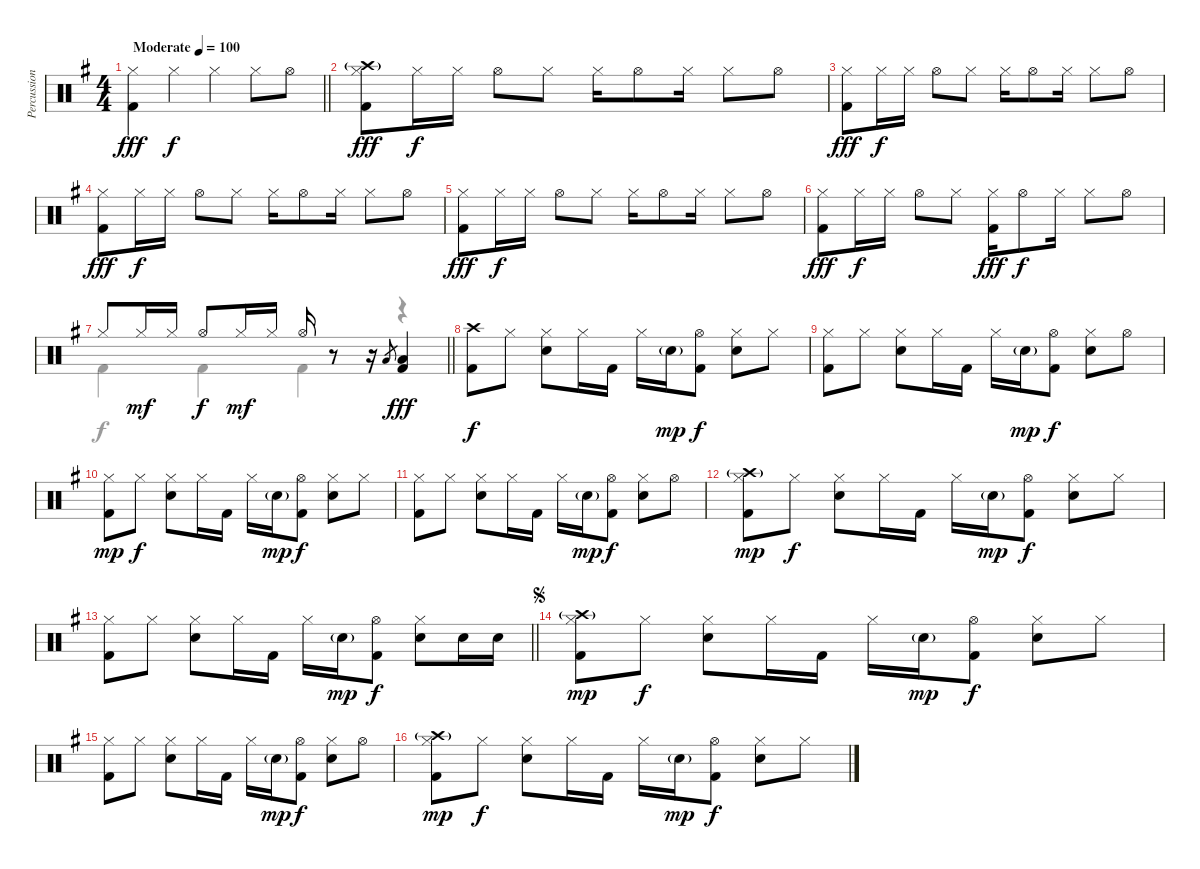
\track ("Percussion" "Percussion") {instrument percussion}
\staff {score}
\articulation defaults
\voice
\ts (4 4)
\tempo (100 "Moderate")
\clef neutral
\barLineRight lightlight
\ks g
("Hi-Hat (closed)" "Kick (hit) 2").4{dy fff} "Hi-Hat (closed)".4{dy f} "Hi-Hat (closed)".4 "Hi-Hat (closed)".8 "Hi-Hat (open)".8 |
("Crash high (hit)"{g} "Hi-Hat (closed)" "Kick (hit) 2").8{dy fff} "Hi-Hat (closed)".16{dy f} "Hi-Hat (closed)".16 "Hi-Hat (open)".8 "Hi-Hat (closed)".8 "Hi-Hat (closed)".16 "Hi-Hat (open)".8 "Hi-Hat (closed)".16 "Hi-Hat (closed)".8 "Hi-Hat (open)".8 |
("Hi-Hat (closed)" "Kick (hit) 2").8{dy fff} "Hi-Hat (closed)".16{dy f} "Hi-Hat (closed)".16 "Hi-Hat (open)".8 "Hi-Hat (closed)".8 "Hi-Hat (closed)".16 "Hi-Hat (open)".8 "Hi-Hat (closed)".16 "Hi-Hat (closed)".8 "Hi-Hat (open)".8 |
("Hi-Hat (closed)" "Kick (hit) 2").8{dy fff} "Hi-Hat (closed)".16{dy f} "Hi-Hat (closed)".16 "Hi-Hat (open)".8 "Hi-Hat (closed)".8 "Hi-Hat (closed)".16 "Hi-Hat (open)".8 "Hi-Hat (closed)".16 "Hi-Hat (closed)".8 "Hi-Hat (open)".8 |
("Hi-Hat (closed)" "Kick (hit) 2").8{dy fff} "Hi-Hat (closed)".16{dy f} "Hi-Hat (closed)".16 "Hi-Hat (open)".8 "Hi-Hat (closed)".8 "Hi-Hat (closed)".16 "Hi-Hat (open)".8 "Hi-Hat (closed)".16 "Hi-Hat (closed)".8 "Hi-Hat (open)".8 |
("Hi-Hat (closed)" "Kick (hit) 2").8{dy fff} "Hi-Hat (closed)".16{dy f} "Hi-Hat (closed)".16 "Hi-Hat (open)".8 "Hi-Hat (closed)".8 ("Hi-Hat (closed)" "Kick (hit) 2").16{dy fff} "Hi-Hat (open)".8{dy f} "Hi-Hat (closed)".16 "Hi-Hat (closed)".8 "Hi-Hat (open)".8 |
\barLineRight lightlight "Hi-Hat (closed)".8 "Hi-Hat (closed)".16{dy mf} "Hi-Hat (closed)".16 "Hi-Hat (open)".8{dy f} "Hi-Hat (closed)".16{dy mf} "Hi-Hat (closed)".16 "Hi-Hat (open)".16
r.8 r.16 "Low Floor Tom (hit)".8{gr} ("Kick (hit) 2" "Low Floor Tom (hit)").4{dy fff} |
("Crash high (hit)" "Kick (hit) 2").8{dy f} "Hi-Hat (closed)".8 ("Hi-Hat (closed)" "Electric Snare (hit)").8 "Hi-Hat (closed)".16 "Kick (hit) 2".16 "Hi-Hat (closed)".16 "Electric Snare (hit)"{g}.16{dy mp} ("Hi-Hat (open)" "Kick (hit) 2").8{dy f} ("Hi-Hat (closed)" "Electric Snare (hit)").8 "Hi-Hat (closed)".8 |
("Hi-Hat (closed)" "Kick (hit) 2").8 "Hi-Hat (closed)".8 ("Hi-Hat (closed)" "Electric Snare (hit)").8 "Hi-Hat (closed)".16 "Kick (hit) 2".16 "Hi-Hat (closed)".16 "Electric Snare (hit)"{g}.16{dy mp} ("Hi-Hat (open)" "Kick (hit) 2").8{dy f} ("Hi-Hat (closed)" "Electric Snare (hit)").8 "Hi-Hat (open)".8 |
("Hi-Hat (closed)" "Kick (hit) 2").8{dy mp} "Hi-Hat (closed)".8{dy f} ("Hi-Hat (closed)" "Electric Snare (hit)").8 "Hi-Hat (closed)".16 "Kick (hit) 2".16 "Hi-Hat (closed)".16 "Electric Snare (hit)"{g}.16{dy mp} ("Hi-Hat (open)" "Kick (hit) 2").8{dy f} ("Hi-Hat (closed)" "Electric Snare (hit)").8 "Hi-Hat (closed)".8 |
("Hi-Hat (closed)" "Kick (hit) 2").8 "Hi-Hat (closed)".8 ("Hi-Hat (closed)" "Electric Snare (hit)").8 "Hi-Hat (closed)".16 "Kick (hit) 2".16 "Hi-Hat (closed)".16 "Electric Snare (hit)"{g}.16{dy mp} ("Hi-Hat (open)" "Kick (hit) 2").8{dy f} ("Hi-Hat (closed)" "Electric Snare (hit)").8 "Hi-Hat (open)".8 |
("Crash high (hit)"{g} "Hi-Hat (closed)" "Kick (hit) 2").8{dy mp} "Hi-Hat (closed)".8{dy f} ("Hi-Hat (closed)" "Electric Snare (hit)").8 "Hi-Hat (closed)".16 "Kick (hit) 2".16 "Hi-Hat (closed)".16 "Electric Snare (hit)"{g}.16{dy mp} ("Hi-Hat (open)" "Kick (hit) 2").8{dy f} ("Hi-Hat (closed)" "Electric Snare (hit)").8 "Hi-Hat (closed)".8 |
\barLineRight lightlight
("Hi-Hat (closed)" "Kick (hit) 2").8 "Hi-Hat (closed)".8 ("Hi-Hat (closed)" "Electric Snare (hit)").8 "Hi-Hat (closed)".16 "Kick (hit) 2".16 "Hi-Hat (closed)".16 "Electric Snare (hit)"{g}.16{dy mp} ("Hi-Hat (open)" "Kick (hit) 2").8{dy f} ("Hi-Hat (closed)" "Electric Snare (hit)").8 "Electric Snare (hit)".16 "Electric Snare (hit)".16 |
\jump segno
("Crash high (hit)"{g} "Hi-Hat (closed)" "Kick (hit) 2").8{dy mp} "Hi-Hat (closed)".8{dy f} ("Hi-Hat (closed)" "Electric Snare (hit)").8 "Hi-Hat (closed)".16 "Kick (hit) 2".16 "Hi-Hat (closed)".16 "Electric Snare (hit)"{g}.16{dy mp} ("Hi-Hat (open)" "Kick (hit) 2").8{dy f} ("Hi-Hat (closed)" "Electric Snare (hit)").8 "Hi-Hat (closed)".8 |
("Hi-Hat (closed)" "Kick (hit) 2").8 "Hi-Hat (closed)".8 ("Hi-Hat (closed)" "Electric Snare (hit)").8 "Hi-Hat (closed)".16 "Kick (hit) 2".16 "Hi-Hat (closed)".16 "Electric Snare (hit)"{g}.16{dy mp} ("Hi-Hat (open)" "Kick (hit) 2").8{dy f} ("Hi-Hat (closed)" "Electric Snare (hit)").8 "Hi-Hat (open)".8 |
("Crash high (hit)"{g} "Hi-Hat (closed)" "Kick (hit) 2").8{dy mp} "Hi-Hat (closed)".8{dy f} ("Hi-Hat (closed)" "Electric Snare (hit)").8 "Hi-Hat (closed)".16 "Kick (hit) 2".16 "Hi-Hat (closed)".16 "Electric Snare (hit)"{g}.16{dy mp} ("Hi-Hat (open)" "Kick (hit) 2").8{dy f} ("Hi-Hat (closed)" "Electric Snare (hit)").8 "Hi-Hat (closed)".8
\voice
\clef neutral
\ottava regular
\simile none
\barLineRight lightlight
\ks g
|
|
|
|
|
|
\barLineRight lightlight "Kick (hit) 2".4 "Kick (hit) 2".4 "Kick (hit) 2".4
r.4 |
|
|
|
|
|
\barLineRight lightlight
|
|
|
